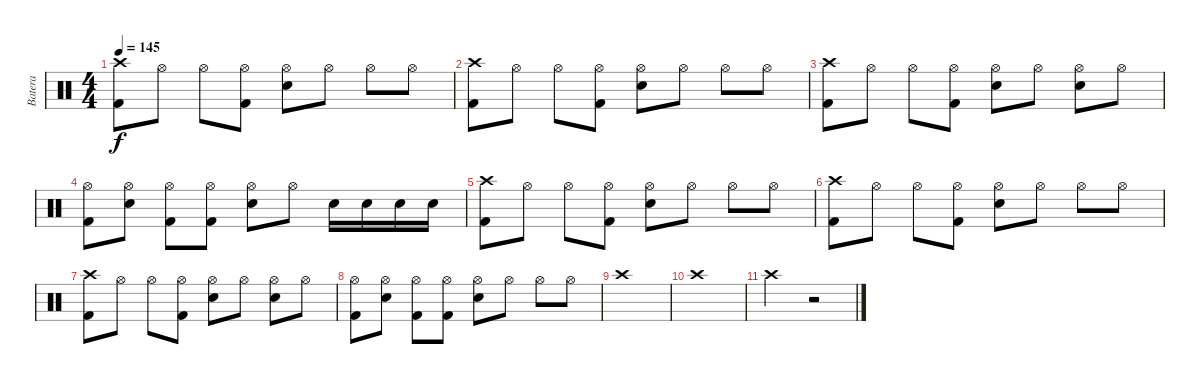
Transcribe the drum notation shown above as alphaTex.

\track ("Batera" "Batera") {instrument percussion}
\staff {score}
\articulation defaults
\ts (4 4)
\tempo 145
\clef neutral
\ks c
("Crash high (hit)" "Kick (hit) 2").8{dy f} "Hi-Hat (open)".8 "Hi-Hat (open)".8 ("Hi-Hat (open)" "Kick (hit) 2").8 ("Hi-Hat (open)" "Electric Snare (hit)").8 "Hi-Hat (open)".8 "Hi-Hat (open)".8 "Hi-Hat (open)".8 |
("Crash high (hit)" "Kick (hit) 2").8 "Hi-Hat (open)".8 "Hi-Hat (open)".8 ("Hi-Hat (open)" "Kick (hit) 2").8 ("Hi-Hat (open)" "Electric Snare (hit)").8 "Hi-Hat (open)".8 "Hi-Hat (open)".8 "Hi-Hat (open)".8 |
("Crash high (hit)" "Kick (hit) 2").8 "Hi-Hat (open)".8 "Hi-Hat (open)".8 ("Hi-Hat (open)" "Kick (hit) 2").8 ("Hi-Hat (open)" "Electric Snare (hit)").8 "Hi-Hat (open)".8 ("Hi-Hat (open)" "Electric Snare (hit)").8 "Hi-Hat (open)".8 |
("Hi-Hat (open)" "Kick (hit) 2").8 ("Hi-Hat (open)" "Electric Snare (hit)").8 ("Hi-Hat (open)" "Kick (hit) 2").8 ("Hi-Hat (open)" "Kick (hit) 2").8 ("Hi-Hat (open)" "Electric Snare (hit)").8 "Hi-Hat (open)".8 "Electric Snare (hit)".16 "Electric Snare (hit)".16 "Electric Snare (hit)".16 "Electric Snare (hit)".16 |
("Crash high (hit)" "Kick (hit) 2").8 "Hi-Hat (open)".8 "Hi-Hat (open)".8 ("Hi-Hat (open)" "Kick (hit) 2").8 ("Hi-Hat (open)" "Electric Snare (hit)").8 "Hi-Hat (open)".8 "Hi-Hat (open)".8 "Hi-Hat (open)".8 |
("Crash high (hit)" "Kick (hit) 2").8 "Hi-Hat (open)".8 "Hi-Hat (open)".8 ("Hi-Hat (open)" "Kick (hit) 2").8 ("Hi-Hat (open)" "Electric Snare (hit)").8 "Hi-Hat (open)".8 "Hi-Hat (open)".8 "Hi-Hat (open)".8 |
("Crash high (hit)" "Kick (hit) 2").8 "Hi-Hat (open)".8 "Hi-Hat (open)".8 ("Hi-Hat (open)" "Kick (hit) 2").8 ("Hi-Hat (open)" "Electric Snare (hit)").8 "Hi-Hat (open)".8 ("Hi-Hat (open)" "Electric Snare (hit)").8 "Hi-Hat (open)".8 |
("Hi-Hat (open)" "Kick (hit) 2").8 ("Hi-Hat (open)" "Electric Snare (hit)").8 ("Hi-Hat (open)" "Kick (hit) 2").8 ("Hi-Hat (open)" "Kick (hit) 2").8 ("Hi-Hat (open)" "Electric Snare (hit)").8 "Hi-Hat (open)".8 "Hi-Hat (open)".8 "Hi-Hat (open)".8 |
"Crash high (hit)".1 |
"Crash high (hit)".1 |
"Crash high (hit)".2 r.2
